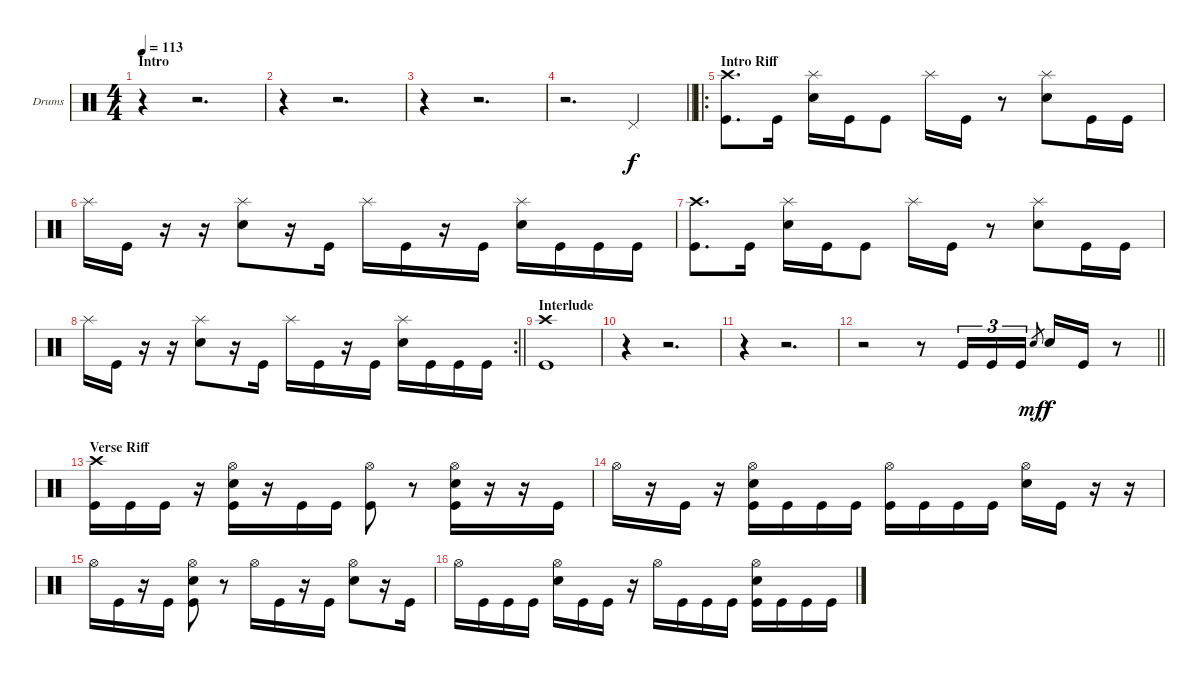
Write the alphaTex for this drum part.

\bracketExtendMode groupsimilarinstruments
\firstSystemTrackNameOrientation horizontal
\otherSystemsTrackNameOrientation horizontal
\track ("Drumkit" "Drums") {instrument percussion}
\staff {score}
\articulation defaults
\ts (4 4)
\beaming (8 2 2 2 2)
\section ("" "Intro")
\tempo 113
\clef neutral
\ks c
r.4{dy f} r.2{d} |
r.4 r.2{d} |
r.4 r.2{d} |
\barLineRight lightlight
r.2{d} "Pedal Hi-Hat (hit)".4 |
\ro
\section ("" "Intro Riff")
("Crash high (hit)" "Kick (hit)").8{d} "Kick (hit)".16 ("Splash (hit)" "Snare (hit) 2").16 "Kick (hit)".16 "Kick (hit)".8 "Splash (hit)".16 "Kick (hit)".16 r.8 ("Splash (hit)" "Snare (hit) 2").8 "Kick (hit)".16 "Kick (hit)".16 |
"Splash (hit)".16 "Kick (hit)".16 r.16 r.16 ("Splash (hit)" "Snare (hit) 2").8 r.16 "Kick (hit)".16 "Splash (hit)".16 "Kick (hit)".16 r.16 "Kick (hit)".16 ("Splash (hit)" "Snare (hit) 2").16 "Kick (hit)".16 "Kick (hit)".16 "Kick (hit)".16 |
("Crash high (hit)" "Kick (hit)").8{d} "Kick (hit)".16 ("Splash (hit)" "Snare (hit) 2").16 "Kick (hit)".16 "Kick (hit)".8 "Splash (hit)".16 "Kick (hit)".16 r.8 ("Splash (hit)" "Snare (hit) 2").8 "Kick (hit)".16 "Kick (hit)".16 |
\rc 2
\barLineRight lightlight "Splash (hit)".16 "Kick (hit)".16
r.16 r.16 ("Splash (hit)" "Snare (hit) 2").8 r.16 "Kick (hit)".16 "Splash (hit)".16 "Kick (hit)".16 r.16 "Kick (hit)".16 ("Splash (hit)" "Snare (hit) 2").16 "Kick (hit)".16 "Kick (hit)".16 "Kick (hit)".16 |
\section ("" "Interlude")
("Crash high (hit)" "Kick (hit)").1 |
r.4 r.2{d} |
r.4 r.2{d} |
\barLineRight lightlight
r.2 r.8 "Kick (hit)".16{tu (3 2)} "Kick (hit)".16{tu (3 2)} "Kick (hit)".16{tu (3 2)} "Snare (hit) 2".8{gr dy mf} "Snare (hit) 2".16{dy f} "Kick (hit)".16 r.8 |
\section ("" "Verse Riff")
("Crash high (hit)" "Kick (hit)").16 "Kick (hit)".16 "Kick (hit)".16 r.16 ("Hi-Hat (open)" "Snare (hit) 2" "Kick (hit)").16 r.16 "Kick (hit)".16 "Kick (hit)".16 ("Hi-Hat (open)" "Kick (hit)").8 r.8 ("Hi-Hat (open)" "Snare (hit) 2" "Kick (hit)").16 r.16 r.16 "Kick (hit)".16 |
"Hi-Hat (open)".16 r.16 "Kick (hit)".16 r.16 ("Hi-Hat (open)" "Snare (hit) 2" "Kick (hit)").16 "Kick (hit)".16 "Kick (hit)".16 "Kick (hit)".16 ("Hi-Hat (open)" "Kick (hit)").16 "Kick (hit)".16 "Kick (hit)".16 "Kick (hit)".16 ("Hi-Hat (open)" "Snare (hit) 2").16 "Kick (hit)".16 r.16 r.16 |
"Hi-Hat (open)".16 "Kick (hit)".16 r.16 "Kick (hit)".16 ("Hi-Hat (open)" "Snare (hit) 2" "Kick (hit)").8 r.8 "Hi-Hat (open)".16 "Kick (hit)".16 r.16 "Kick (hit)".16 ("Hi-Hat (open)" "Snare (hit) 2").8 r.16 "Kick (hit)".16 |
"Hi-Hat (open)".16 "Kick (hit)".16 "Kick (hit)".16 "Kick (hit)".16 ("Hi-Hat (open)" "Snare (hit) 2").16 "Kick (hit)".16 "Kick (hit)".16 r.16 "Hi-Hat (open)".16 "Kick (hit)".16 "Kick (hit)".16 "Kick (hit)".16 ("Hi-Hat (open)" "Snare (hit) 2" "Kick (hit)").16 "Kick (hit)".16 "Kick (hit)".16 "Kick (hit)".16
